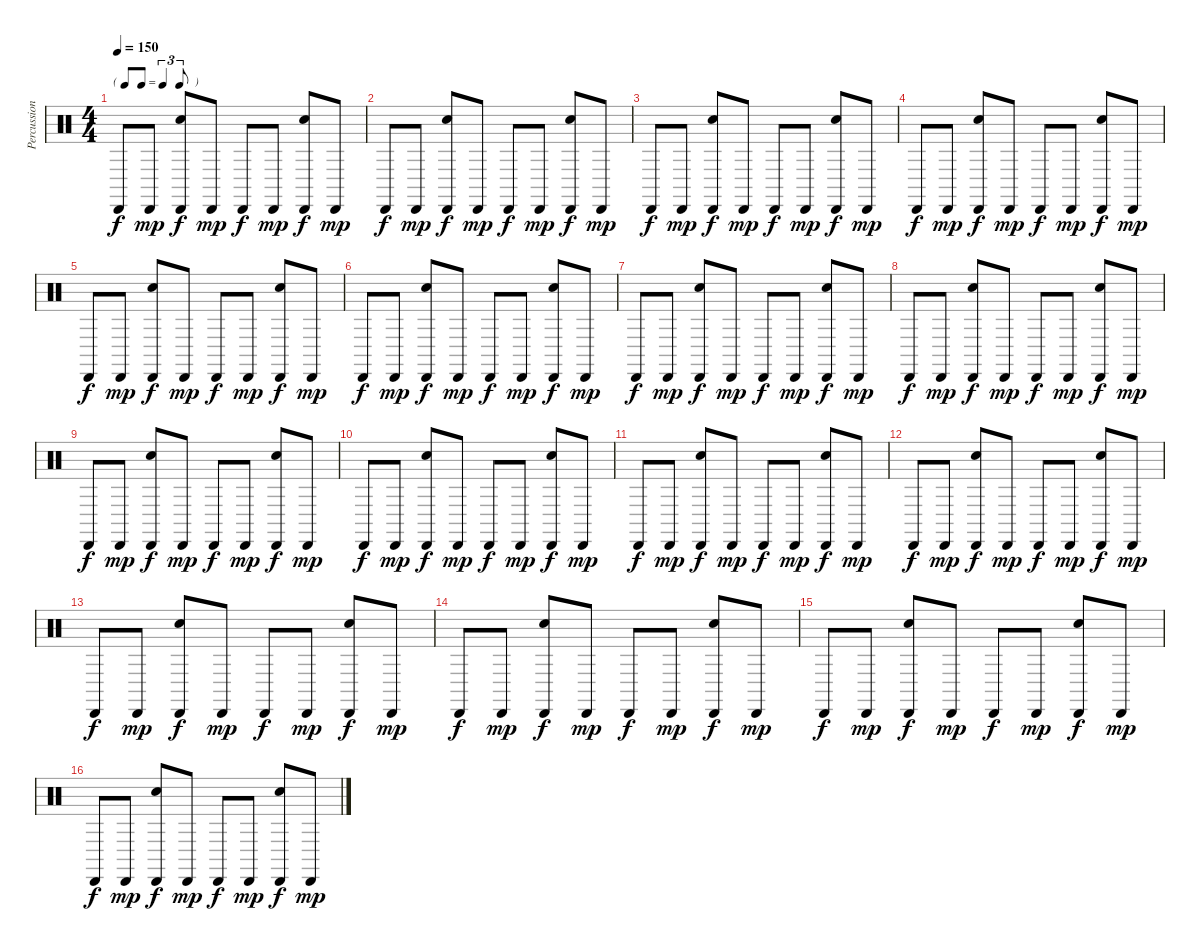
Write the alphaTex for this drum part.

\track ("Percussion" "Percussion") {instrument percussion}
\staff {score}
\articulation defaults
\ts (4 4)
\tf triplet8th
\tempo 150
\clef neutral
\ks c "Cabasa (hit)".8{dy f} "Cabasa (hit)".8{dy mp}
("Cabasa (hit)" "Hand Clap (hit)").8{dy f} "Cabasa (hit)".8{dy mp} "Cabasa (hit)".8{dy f} "Cabasa (hit)".8{dy mp} ("Cabasa (hit)" "Hand Clap (hit)").8{dy f} "Cabasa (hit)".8{dy mp} |
"Cabasa (hit)".8{dy f} "Cabasa (hit)".8{dy mp} ("Cabasa (hit)" "Hand Clap (hit)").8{dy f} "Cabasa (hit)".8{dy mp} "Cabasa (hit)".8{dy f} "Cabasa (hit)".8{dy mp} ("Cabasa (hit)" "Hand Clap (hit)").8{dy f} "Cabasa (hit)".8{dy mp} |
"Cabasa (hit)".8{dy f} "Cabasa (hit)".8{dy mp} ("Cabasa (hit)" "Hand Clap (hit)").8{dy f} "Cabasa (hit)".8{dy mp} "Cabasa (hit)".8{dy f} "Cabasa (hit)".8{dy mp} ("Cabasa (hit)" "Hand Clap (hit)").8{dy f} "Cabasa (hit)".8{dy mp} |
"Cabasa (hit)".8{dy f} "Cabasa (hit)".8{dy mp} ("Cabasa (hit)" "Hand Clap (hit)").8{dy f} "Cabasa (hit)".8{dy mp} "Cabasa (hit)".8{dy f} "Cabasa (hit)".8{dy mp} ("Cabasa (hit)" "Hand Clap (hit)").8{dy f} "Cabasa (hit)".8{dy mp} |
"Cabasa (hit)".8{dy f} "Cabasa (hit)".8{dy mp} ("Cabasa (hit)" "Hand Clap (hit)").8{dy f} "Cabasa (hit)".8{dy mp} "Cabasa (hit)".8{dy f} "Cabasa (hit)".8{dy mp} ("Cabasa (hit)" "Hand Clap (hit)").8{dy f} "Cabasa (hit)".8{dy mp} |
"Cabasa (hit)".8{dy f} "Cabasa (hit)".8{dy mp} ("Cabasa (hit)" "Hand Clap (hit)").8{dy f} "Cabasa (hit)".8{dy mp} "Cabasa (hit)".8{dy f} "Cabasa (hit)".8{dy mp} ("Cabasa (hit)" "Hand Clap (hit)").8{dy f} "Cabasa (hit)".8{dy mp} |
"Cabasa (hit)".8{dy f} "Cabasa (hit)".8{dy mp} ("Cabasa (hit)" "Hand Clap (hit)").8{dy f} "Cabasa (hit)".8{dy mp} "Cabasa (hit)".8{dy f} "Cabasa (hit)".8{dy mp} ("Cabasa (hit)" "Hand Clap (hit)").8{dy f} "Cabasa (hit)".8{dy mp} |
"Cabasa (hit)".8{dy f} "Cabasa (hit)".8{dy mp} ("Cabasa (hit)" "Hand Clap (hit)").8{dy f} "Cabasa (hit)".8{dy mp} "Cabasa (hit)".8{dy f} "Cabasa (hit)".8{dy mp} ("Cabasa (hit)" "Hand Clap (hit)").8{dy f} "Cabasa (hit)".8{dy mp} |
"Cabasa (hit)".8{dy f} "Cabasa (hit)".8{dy mp} ("Cabasa (hit)" "Hand Clap (hit)").8{dy f} "Cabasa (hit)".8{dy mp} "Cabasa (hit)".8{dy f} "Cabasa (hit)".8{dy mp} ("Cabasa (hit)" "Hand Clap (hit)").8{dy f} "Cabasa (hit)".8{dy mp} |
"Cabasa (hit)".8{dy f} "Cabasa (hit)".8{dy mp} ("Cabasa (hit)" "Hand Clap (hit)").8{dy f} "Cabasa (hit)".8{dy mp} "Cabasa (hit)".8{dy f} "Cabasa (hit)".8{dy mp} ("Cabasa (hit)" "Hand Clap (hit)").8{dy f} "Cabasa (hit)".8{dy mp} |
"Cabasa (hit)".8{dy f} "Cabasa (hit)".8{dy mp} ("Cabasa (hit)" "Hand Clap (hit)").8{dy f} "Cabasa (hit)".8{dy mp} "Cabasa (hit)".8{dy f} "Cabasa (hit)".8{dy mp} ("Cabasa (hit)" "Hand Clap (hit)").8{dy f} "Cabasa (hit)".8{dy mp} |
"Cabasa (hit)".8{dy f} "Cabasa (hit)".8{dy mp} ("Cabasa (hit)" "Hand Clap (hit)").8{dy f} "Cabasa (hit)".8{dy mp} "Cabasa (hit)".8{dy f} "Cabasa (hit)".8{dy mp} ("Cabasa (hit)" "Hand Clap (hit)").8{dy f} "Cabasa (hit)".8{dy mp} |
"Cabasa (hit)".8{dy f} "Cabasa (hit)".8{dy mp} ("Cabasa (hit)" "Hand Clap (hit)").8{dy f} "Cabasa (hit)".8{dy mp} "Cabasa (hit)".8{dy f} "Cabasa (hit)".8{dy mp} ("Cabasa (hit)" "Hand Clap (hit)").8{dy f} "Cabasa (hit)".8{dy mp} |
"Cabasa (hit)".8{dy f} "Cabasa (hit)".8{dy mp} ("Cabasa (hit)" "Hand Clap (hit)").8{dy f} "Cabasa (hit)".8{dy mp} "Cabasa (hit)".8{dy f} "Cabasa (hit)".8{dy mp} ("Cabasa (hit)" "Hand Clap (hit)").8{dy f} "Cabasa (hit)".8{dy mp} |
"Cabasa (hit)".8{dy f} "Cabasa (hit)".8{dy mp} ("Cabasa (hit)" "Hand Clap (hit)").8{dy f} "Cabasa (hit)".8{dy mp} "Cabasa (hit)".8{dy f} "Cabasa (hit)".8{dy mp} ("Cabasa (hit)" "Hand Clap (hit)").8{dy f} "Cabasa (hit)".8{dy mp} |
"Cabasa (hit)".8{dy f} "Cabasa (hit)".8{dy mp} ("Cabasa (hit)" "Hand Clap (hit)").8{dy f} "Cabasa (hit)".8{dy mp} "Cabasa (hit)".8{dy f} "Cabasa (hit)".8{dy mp} ("Cabasa (hit)" "Hand Clap (hit)").8{dy f} "Cabasa (hit)".8{dy mp}
